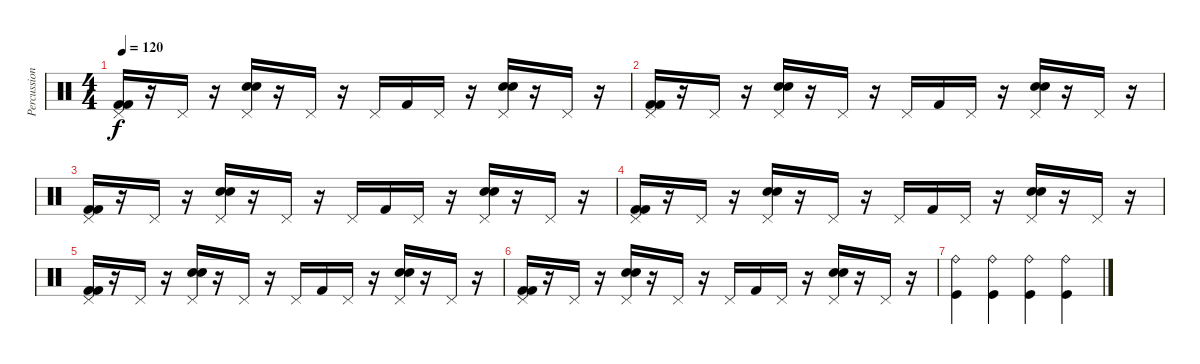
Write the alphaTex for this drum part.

\track ("Percussion" "Percussion") {instrument percussion}
\staff {score}
\articulation defaults
\ts (4 4)
\tempo 120
\clef neutral
\ks c
("Pedal Hi-Hat (hit)" "Kick (hit) 2" "Kick (hit) 2").16{dy f} r.16 "Pedal Hi-Hat (hit)".16 r.16 ("Pedal Hi-Hat (hit)" "Electric Snare (hit)" "Electric Snare (hit)").16 r.16 "Pedal Hi-Hat (hit)".16 r.16 "Pedal Hi-Hat (hit)".16 "Kick (hit) 2".16 "Pedal Hi-Hat (hit)".16 r.16 ("Pedal Hi-Hat (hit)" "Electric Snare (hit)" "Electric Snare (hit)").16 r.16 "Pedal Hi-Hat (hit)".16 r.16 |
("Pedal Hi-Hat (hit)" "Kick (hit) 2" "Kick (hit) 2").16 r.16 "Pedal Hi-Hat (hit)".16 r.16 ("Pedal Hi-Hat (hit)" "Electric Snare (hit)" "Electric Snare (hit)").16 r.16 "Pedal Hi-Hat (hit)".16 r.16 "Pedal Hi-Hat (hit)".16 "Kick (hit) 2".16 "Pedal Hi-Hat (hit)".16 r.16 ("Pedal Hi-Hat (hit)" "Electric Snare (hit)" "Electric Snare (hit)").16 r.16 "Pedal Hi-Hat (hit)".16 r.16 |
("Pedal Hi-Hat (hit)" "Kick (hit) 2" "Kick (hit) 2").16 r.16 "Pedal Hi-Hat (hit)".16 r.16 ("Pedal Hi-Hat (hit)" "Electric Snare (hit)" "Electric Snare (hit)").16 r.16 "Pedal Hi-Hat (hit)".16 r.16 "Pedal Hi-Hat (hit)".16 "Kick (hit) 2".16 "Pedal Hi-Hat (hit)".16 r.16 ("Pedal Hi-Hat (hit)" "Electric Snare (hit)" "Electric Snare (hit)").16 r.16 "Pedal Hi-Hat (hit)".16 r.16 |
("Pedal Hi-Hat (hit)" "Kick (hit) 2" "Kick (hit) 2").16 r.16 "Pedal Hi-Hat (hit)".16 r.16 ("Pedal Hi-Hat (hit)" "Electric Snare (hit)" "Electric Snare (hit)").16 r.16 "Pedal Hi-Hat (hit)".16 r.16 "Pedal Hi-Hat (hit)".16 "Kick (hit) 2".16 "Pedal Hi-Hat (hit)".16 r.16 ("Pedal Hi-Hat (hit)" "Electric Snare (hit)" "Electric Snare (hit)").16 r.16 "Pedal Hi-Hat (hit)".16 r.16 |
("Pedal Hi-Hat (hit)" "Kick (hit) 2" "Kick (hit) 2").16 r.16 "Pedal Hi-Hat (hit)".16 r.16 ("Pedal Hi-Hat (hit)" "Electric Snare (hit)" "Electric Snare (hit)").16 r.16 "Pedal Hi-Hat (hit)".16 r.16 "Pedal Hi-Hat (hit)".16 "Kick (hit) 2".16 "Pedal Hi-Hat (hit)".16 r.16 ("Pedal Hi-Hat (hit)" "Electric Snare (hit)" "Electric Snare (hit)").16 r.16 "Pedal Hi-Hat (hit)".16 r.16 |
("Pedal Hi-Hat (hit)" "Kick (hit) 2" "Kick (hit) 2").16 r.16 "Pedal Hi-Hat (hit)".16 r.16 ("Pedal Hi-Hat (hit)" "Electric Snare (hit)" "Electric Snare (hit)").16 r.16 "Pedal Hi-Hat (hit)".16 r.16 "Pedal Hi-Hat (hit)".16 "Kick (hit) 2".16 "Pedal Hi-Hat (hit)".16 r.16 ("Pedal Hi-Hat (hit)" "Electric Snare (hit)" "Electric Snare (hit)").16 r.16 "Pedal Hi-Hat (hit)".16 r.16 |
("Kick (hit)" "Ride (bell)").4 ("Kick (hit)" "Ride (bell)").4 ("Kick (hit)" "Ride (bell)").4 ("Kick (hit)" "Ride (bell)").4
